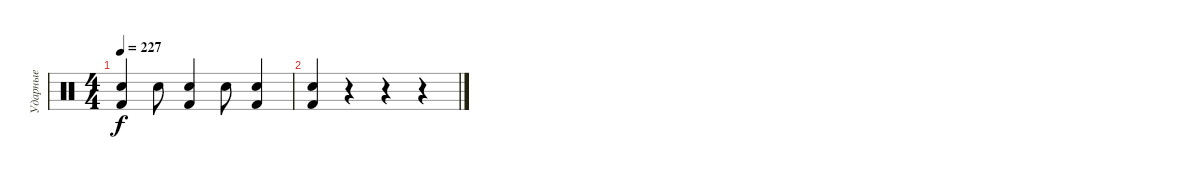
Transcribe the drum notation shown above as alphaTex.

\track ("Ударные" "Ударные") {instrument percussion}
\staff {score}
\articulation defaults
\ts (4 4)
\tempo 227
\clef neutral
\ks c
("Kick (hit) 2" "Snare (hit) 2").4{dy f} "Snare (hit) 2".8 ("Kick (hit) 2" "Snare (hit) 2").4 "Snare (hit) 2".8 ("Kick (hit) 2" "Snare (hit) 2").4 |
("Kick (hit) 2" "Snare (hit) 2").4 r.4 r.4 r.4
